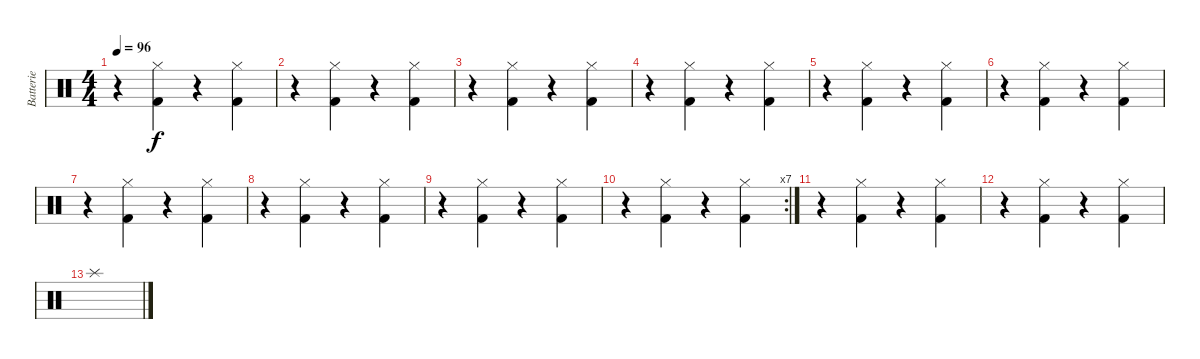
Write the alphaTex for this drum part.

\track ("Batterie" "Batterie") {instrument percussion}
\staff {score}
\articulation defaults
\ts (4 4)
\tempo 96
\clef neutral
\ks c
r.4{dy f} ("Hi-Hat (closed)" "Kick (hit) 2").4 r.4 ("Hi-Hat (closed)" "Kick (hit) 2").4 |
r.4 ("Hi-Hat (closed)" "Kick (hit) 2").4 r.4 ("Hi-Hat (closed)" "Kick (hit) 2").4 |
r.4 ("Hi-Hat (closed)" "Kick (hit) 2").4 r.4 ("Hi-Hat (closed)" "Kick (hit) 2").4 |
r.4 ("Hi-Hat (closed)" "Kick (hit) 2").4 r.4 ("Hi-Hat (closed)" "Kick (hit) 2").4 |
r.4 ("Hi-Hat (closed)" "Kick (hit) 2").4 r.4 ("Hi-Hat (closed)" "Kick (hit) 2").4 |
r.4 ("Hi-Hat (closed)" "Kick (hit) 2").4 r.4 ("Hi-Hat (closed)" "Kick (hit) 2").4 |
r.4 ("Hi-Hat (closed)" "Kick (hit) 2").4 r.4 ("Hi-Hat (closed)" "Kick (hit) 2").4 |
r.4 ("Hi-Hat (closed)" "Kick (hit) 2").4 r.4 ("Hi-Hat (closed)" "Kick (hit) 2").4 |
r.4 ("Hi-Hat (closed)" "Kick (hit) 2").4 r.4 ("Hi-Hat (closed)" "Kick (hit) 2").4 |
\rc 7
r.4 ("Hi-Hat (closed)" "Kick (hit) 2").4 r.4 ("Hi-Hat (closed)" "Kick (hit) 2").4 |
r.4 ("Hi-Hat (closed)" "Kick (hit) 2").4 r.4 ("Hi-Hat (closed)" "Kick (hit) 2").4 |
r.4 ("Hi-Hat (closed)" "Kick (hit) 2").4 r.4 ("Hi-Hat (closed)" "Kick (hit) 2").4 |
"Splash (hit)".1
